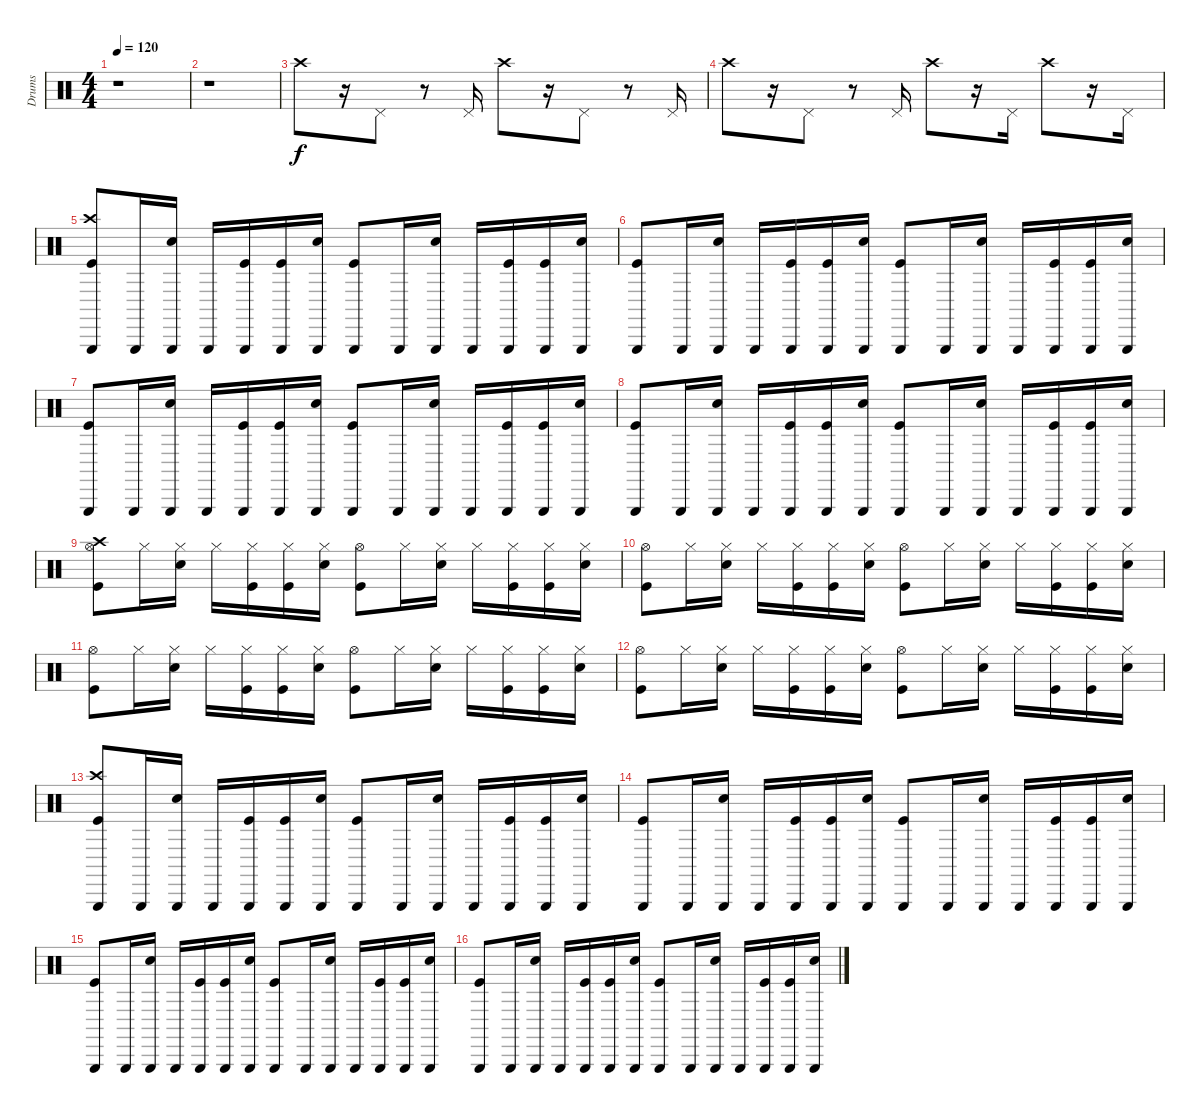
\track ("Drums" "Drums") {instrument percussion}
\staff {score}
\articulation defaults
\ts (4 4)
\tempo 120
\clef neutral
\ks c
r.1{dy f} |
r.1 |
"Crash high (hit)".8 r.16 "Pedal Hi-Hat (hit)".8 r.8 "Pedal Hi-Hat (hit)".16 "Crash high (hit)".8 r.16 "Pedal Hi-Hat (hit)".8 r.8 "Pedal Hi-Hat (hit)".16 |
"Crash high (hit)".8 r.16 "Pedal Hi-Hat (hit)".8 r.8 "Pedal Hi-Hat (hit)".16 "Crash high (hit)".8 r.16 "Pedal Hi-Hat (hit)".16 "Crash high (hit)".8 r.16 "Pedal Hi-Hat (hit)".16 |
("Crash high (hit)" "Triangle (hit)" "Kick (hit)").8 "Triangle (hit)".16 ("Triangle (hit)" "Snare (hit) 2").16 "Triangle (hit)".16 ("Triangle (hit)" "Kick (hit)").16 ("Triangle (hit)" "Kick (hit)").16 ("Triangle (hit)" "Snare (hit) 2").16 ("Triangle (hit)" "Kick (hit)").8 "Triangle (hit)".16 ("Triangle (hit)" "Snare (hit) 2").16 "Triangle (hit)".16 ("Triangle (hit)" "Kick (hit)").16 ("Triangle (hit)" "Kick (hit)").16 ("Triangle (hit)" "Snare (hit) 2").16 |
("Triangle (hit)" "Kick (hit)").8 "Triangle (hit)".16 ("Triangle (hit)" "Snare (hit) 2").16 "Triangle (hit)".16 ("Triangle (hit)" "Kick (hit)").16 ("Triangle (hit)" "Kick (hit)").16 ("Triangle (hit)" "Snare (hit) 2").16 ("Triangle (hit)" "Kick (hit)").8 "Triangle (hit)".16 ("Triangle (hit)" "Snare (hit) 2").16 "Triangle (hit)".16 ("Triangle (hit)" "Kick (hit)").16 ("Triangle (hit)" "Kick (hit)").16 ("Triangle (hit)" "Snare (hit) 2").16 |
("Triangle (hit)" "Kick (hit)").8 "Triangle (hit)".16 ("Triangle (hit)" "Snare (hit) 2").16 "Triangle (hit)".16 ("Triangle (hit)" "Kick (hit)").16 ("Triangle (hit)" "Kick (hit)").16 ("Triangle (hit)" "Snare (hit) 2").16 ("Triangle (hit)" "Kick (hit)").8 "Triangle (hit)".16 ("Triangle (hit)" "Snare (hit) 2").16 "Triangle (hit)".16 ("Triangle (hit)" "Kick (hit)").16 ("Triangle (hit)" "Kick (hit)").16 ("Triangle (hit)" "Snare (hit) 2").16 |
("Triangle (hit)" "Kick (hit)").8 "Triangle (hit)".16 ("Triangle (hit)" "Snare (hit) 2").16 "Triangle (hit)".16 ("Triangle (hit)" "Kick (hit)").16 ("Triangle (hit)" "Kick (hit)").16 ("Triangle (hit)" "Snare (hit) 2").16 ("Triangle (hit)" "Kick (hit)").8 "Triangle (hit)".16 ("Triangle (hit)" "Snare (hit) 2").16 "Triangle (hit)".16 ("Triangle (hit)" "Kick (hit)").16 ("Triangle (hit)" "Kick (hit)").16 ("Triangle (hit)" "Snare (hit) 2").16 |
("Crash high (hit)" "Hi-Hat (open)" "Kick (hit)").8 "Hi-Hat (closed)".16 ("Hi-Hat (closed)" "Snare (hit) 2").16 "Hi-Hat (closed)".16 ("Hi-Hat (closed)" "Kick (hit)").16 ("Hi-Hat (closed)" "Kick (hit)").16 ("Hi-Hat (closed)" "Snare (hit) 2").16 ("Hi-Hat (open)" "Kick (hit)").8 "Hi-Hat (closed)".16 ("Hi-Hat (closed)" "Snare (hit) 2").16 "Hi-Hat (closed)".16 ("Hi-Hat (closed)" "Kick (hit)").16 ("Hi-Hat (closed)" "Kick (hit)").16 ("Hi-Hat (closed)" "Snare (hit) 2").16 |
("Hi-Hat (open)" "Kick (hit)").8 "Hi-Hat (closed)".16 ("Hi-Hat (closed)" "Snare (hit) 2").16 "Hi-Hat (closed)".16 ("Hi-Hat (closed)" "Kick (hit)").16 ("Hi-Hat (closed)" "Kick (hit)").16 ("Hi-Hat (closed)" "Snare (hit) 2").16 ("Hi-Hat (open)" "Kick (hit)").8 "Hi-Hat (closed)".16 ("Hi-Hat (closed)" "Snare (hit) 2").16 "Hi-Hat (closed)".16 ("Hi-Hat (closed)" "Kick (hit)").16 ("Hi-Hat (closed)" "Kick (hit)").16 ("Hi-Hat (closed)" "Snare (hit) 2").16 |
("Hi-Hat (open)" "Kick (hit)").8 "Hi-Hat (closed)".16 ("Hi-Hat (closed)" "Snare (hit) 2").16 "Hi-Hat (closed)".16 ("Hi-Hat (closed)" "Kick (hit)").16 ("Hi-Hat (closed)" "Kick (hit)").16 ("Hi-Hat (closed)" "Snare (hit) 2").16 ("Hi-Hat (open)" "Kick (hit)").8 "Hi-Hat (closed)".16 ("Hi-Hat (closed)" "Snare (hit) 2").16 "Hi-Hat (closed)".16 ("Hi-Hat (closed)" "Kick (hit)").16 ("Hi-Hat (closed)" "Kick (hit)").16 ("Hi-Hat (closed)" "Snare (hit) 2").16 |
("Hi-Hat (open)" "Kick (hit)").8 "Hi-Hat (closed)".16 ("Hi-Hat (closed)" "Snare (hit) 2").16 "Hi-Hat (closed)".16 ("Hi-Hat (closed)" "Kick (hit)").16 ("Hi-Hat (closed)" "Kick (hit)").16 ("Hi-Hat (closed)" "Snare (hit) 2").16 ("Hi-Hat (open)" "Kick (hit)").8 "Hi-Hat (closed)".16 ("Hi-Hat (closed)" "Snare (hit) 2").16 "Hi-Hat (closed)".16 ("Hi-Hat (closed)" "Kick (hit)").16 ("Hi-Hat (closed)" "Kick (hit)").16 ("Hi-Hat (closed)" "Snare (hit) 2").16 |
("Crash high (hit)" "Triangle (hit)" "Kick (hit)").8 "Triangle (hit)".16 ("Triangle (hit)" "Snare (hit) 2").16 "Triangle (hit)".16 ("Triangle (hit)" "Kick (hit)").16 ("Triangle (hit)" "Kick (hit)").16 ("Triangle (hit)" "Snare (hit) 2").16 ("Triangle (hit)" "Kick (hit)").8 "Triangle (hit)".16 ("Triangle (hit)" "Snare (hit) 2").16 "Triangle (hit)".16 ("Triangle (hit)" "Kick (hit)").16 ("Triangle (hit)" "Kick (hit)").16 ("Triangle (hit)" "Snare (hit) 2").16 |
("Triangle (hit)" "Kick (hit)").8 "Triangle (hit)".16 ("Triangle (hit)" "Snare (hit) 2").16 "Triangle (hit)".16 ("Triangle (hit)" "Kick (hit)").16 ("Triangle (hit)" "Kick (hit)").16 ("Triangle (hit)" "Snare (hit) 2").16 ("Triangle (hit)" "Kick (hit)").8 "Triangle (hit)".16 ("Triangle (hit)" "Snare (hit) 2").16 "Triangle (hit)".16 ("Triangle (hit)" "Kick (hit)").16 ("Triangle (hit)" "Kick (hit)").16 ("Triangle (hit)" "Snare (hit) 2").16 |
("Triangle (hit)" "Kick (hit)").8 "Triangle (hit)".16 ("Triangle (hit)" "Snare (hit) 2").16 "Triangle (hit)".16 ("Triangle (hit)" "Kick (hit)").16 ("Triangle (hit)" "Kick (hit)").16 ("Triangle (hit)" "Snare (hit) 2").16 ("Triangle (hit)" "Kick (hit)").8 "Triangle (hit)".16 ("Triangle (hit)" "Snare (hit) 2").16 "Triangle (hit)".16 ("Triangle (hit)" "Kick (hit)").16 ("Triangle (hit)" "Kick (hit)").16 ("Triangle (hit)" "Snare (hit) 2").16 |
("Triangle (hit)" "Kick (hit)").8 "Triangle (hit)".16 ("Triangle (hit)" "Snare (hit) 2").16 "Triangle (hit)".16 ("Triangle (hit)" "Kick (hit)").16 ("Triangle (hit)" "Kick (hit)").16 ("Triangle (hit)" "Snare (hit) 2").16 ("Triangle (hit)" "Kick (hit)").8 "Triangle (hit)".16 ("Triangle (hit)" "Snare (hit) 2").16 "Triangle (hit)".16 ("Triangle (hit)" "Kick (hit)").16 ("Triangle (hit)" "Kick (hit)").16 ("Triangle (hit)" "Snare (hit) 2").16
